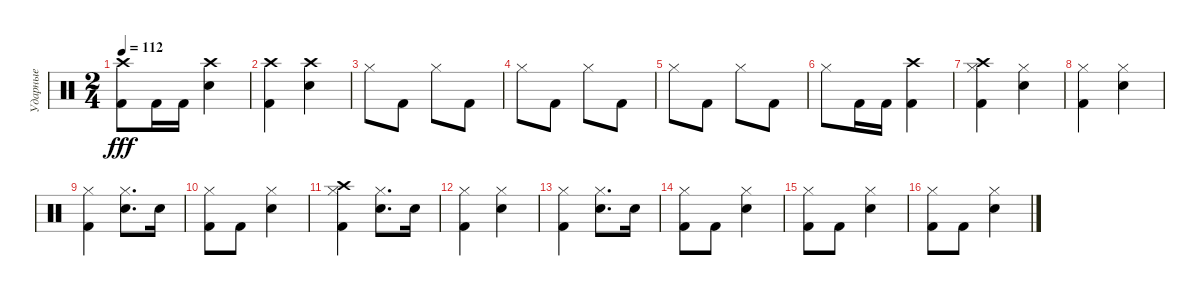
\track ("Ударные" "Ударные") {instrument percussion}
\staff {score}
\articulation defaults
\ts (2 4)
\tempo 112
\clef neutral
\ks c
("Kick (hit) 2" "Crash high (hit)").8{dy fff} "Kick (hit) 2".16 "Kick (hit) 2".16 ("Electric Snare (hit)" "Crash high (hit)").4 |
("Kick (hit) 2" "Crash high (hit)").4 ("Electric Snare (hit)" "Crash high (hit)").4 |
"Hi-Hat (closed)".8 "Kick (hit) 2".8 "Hi-Hat (closed)".8 "Kick (hit) 2".8 |
"Hi-Hat (closed)".8 "Kick (hit) 2".8 "Hi-Hat (closed)".8 "Kick (hit) 2".8 |
"Hi-Hat (closed)".8 "Kick (hit) 2".8 "Hi-Hat (closed)".8 "Kick (hit) 2".8 |
"Hi-Hat (closed)".8 "Kick (hit) 2".16 "Kick (hit) 2".16 ("Crash high (hit)" "Kick (hit) 2").4 |
("Kick (hit) 2" "Hi-Hat (closed)" "Crash high (hit)").4 ("Electric Snare (hit)" "Hi-Hat (closed)").4 |
("Kick (hit) 2" "Hi-Hat (closed)").4 ("Electric Snare (hit)" "Hi-Hat (closed)").4 |
("Kick (hit) 2" "Hi-Hat (closed)").4 ("Hi-Hat (closed)" "Electric Snare (hit)").8{d} "Electric Snare (hit)".16 |
("Kick (hit) 2" "Hi-Hat (closed)").8 "Kick (hit) 2".8 ("Electric Snare (hit)" "Hi-Hat (closed)").4 |
("Kick (hit) 2" "Hi-Hat (closed)" "Crash high (hit)").4 ("Hi-Hat (closed)" "Electric Snare (hit)").8{d} "Electric Snare (hit)".16 |
("Kick (hit) 2" "Hi-Hat (closed)").4 ("Electric Snare (hit)" "Hi-Hat (closed)").4 |
("Kick (hit) 2" "Hi-Hat (closed)").4 ("Electric Snare (hit)" "Hi-Hat (closed)").8{d} "Electric Snare (hit)".16 |
("Hi-Hat (closed)" "Kick (hit) 2").8 "Kick (hit) 2".8 ("Electric Snare (hit)" "Hi-Hat (closed)").4 |
("Hi-Hat (closed)" "Kick (hit) 2").8 "Kick (hit) 2".8 ("Electric Snare (hit)" "Hi-Hat (closed)").4 |
("Hi-Hat (closed)" "Kick (hit) 2").8 "Kick (hit) 2".8 ("Electric Snare (hit)" "Hi-Hat (closed)").4
